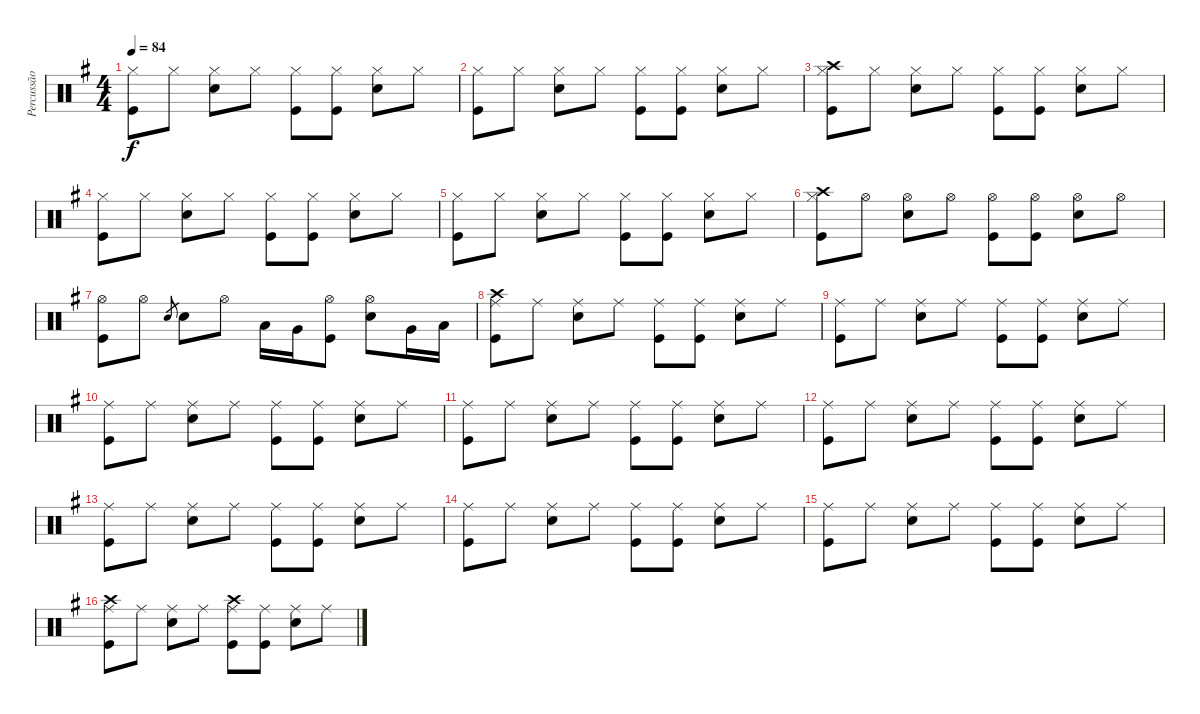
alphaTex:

\track ("Percussão" "Percussão") {instrument percussion}
\staff {score}
\articulation defaults
\ts (4 4)
\tempo 84
\clef neutral
\ks g
("Hi-Hat (closed)" "Kick (hit)").8{dy f} "Hi-Hat (closed)".8 ("Hi-Hat (closed)" "Snare (hit) 2").8 "Hi-Hat (closed)".8 ("Hi-Hat (closed)" "Kick (hit)").8 ("Hi-Hat (closed)" "Kick (hit)").8 ("Hi-Hat (closed)" "Snare (hit) 2").8 "Hi-Hat (closed)".8 |
("Hi-Hat (closed)" "Kick (hit)").8 "Hi-Hat (closed)".8 ("Hi-Hat (closed)" "Snare (hit) 2").8 "Hi-Hat (closed)".8 ("Hi-Hat (closed)" "Kick (hit)").8 ("Hi-Hat (closed)" "Kick (hit)").8 ("Hi-Hat (closed)" "Snare (hit) 2").8 "Hi-Hat (closed)".8 |
("Crash high (hit)" "Hi-Hat (closed)" "Kick (hit)").8 "Hi-Hat (closed)".8 ("Hi-Hat (closed)" "Snare (hit) 2").8 "Hi-Hat (closed)".8 ("Hi-Hat (closed)" "Kick (hit)").8 ("Hi-Hat (closed)" "Kick (hit)").8 ("Hi-Hat (closed)" "Snare (hit) 2").8 "Hi-Hat (closed)".8 |
("Hi-Hat (closed)" "Kick (hit)").8 "Hi-Hat (closed)".8 ("Hi-Hat (closed)" "Snare (hit) 2").8 "Hi-Hat (closed)".8 ("Hi-Hat (closed)" "Kick (hit)").8 ("Hi-Hat (closed)" "Kick (hit)").8 ("Hi-Hat (closed)" "Snare (hit) 2").8 "Hi-Hat (closed)".8 |
("Hi-Hat (closed)" "Kick (hit)").8 "Hi-Hat (closed)".8 ("Hi-Hat (closed)" "Snare (hit) 2").8 "Hi-Hat (closed)".8 ("Hi-Hat (closed)" "Kick (hit)").8 ("Hi-Hat (closed)" "Kick (hit)").8 ("Hi-Hat (closed)" "Snare (hit) 2").8 "Hi-Hat (closed)".8 |
("Crash high (hit)" "Hi-Hat (closed)" "Kick (hit)").8 "Hi-Hat (open)".8 ("Hi-Hat (open)" "Snare (hit) 2").8 "Hi-Hat (open)".8 ("Hi-Hat (open)" "Kick (hit)").8 ("Hi-Hat (open)" "Kick (hit)").8 ("Hi-Hat (open)" "Snare (hit) 2").8 "Hi-Hat (open)".8 |
("Hi-Hat (open)" "Kick (hit)").8 "Hi-Hat (open)".8 "Snare (hit) 2".8{gr} "Snare (hit) 2".8 "Hi-Hat (open)".8 "Low Tom (hit)".16 "Very Low Tom (hit)".16 ("Hi-Hat (open)" "Kick (hit)").8 ("Hi-Hat (open)" "Snare (hit) 2").8 "Very Low Tom (hit)".16 "Low Floor Tom (hit)".16 |
("Crash high (hit)" "Ride (middle)" "Kick (hit)").8 "Ride (middle)".8 ("Ride (middle)" "Snare (hit) 2").8 "Ride (middle)".8 ("Ride (middle)" "Kick (hit)").8 ("Ride (middle)" "Kick (hit)").8 ("Ride (middle)" "Snare (hit) 2").8 "Ride (middle)".8 |
("Ride (middle)" "Kick (hit)").8 "Ride (middle)".8 ("Ride (middle)" "Snare (hit) 2").8 "Ride (middle)".8 ("Ride (middle)" "Kick (hit)").8 ("Ride (middle)" "Kick (hit)").8 ("Ride (middle)" "Snare (hit) 2").8 "Ride (middle)".8 |
("Ride (middle)" "Kick (hit)").8 "Ride (middle)".8 ("Ride (middle)" "Snare (hit) 2").8 "Ride (middle)".8 ("Ride (middle)" "Kick (hit)").8 ("Ride (middle)" "Kick (hit)").8 ("Ride (middle)" "Snare (hit) 2").8 "Ride (middle)".8 |
("Ride (middle)" "Kick (hit)").8 "Ride (middle)".8 ("Ride (middle)" "Snare (hit) 2").8 "Ride (middle)".8 ("Ride (middle)" "Kick (hit)").8 ("Ride (middle)" "Kick (hit)").8 ("Ride (middle)" "Snare (hit) 2").8 "Ride (middle)".8 |
("Ride (middle)" "Kick (hit)").8 "Ride (middle)".8 ("Ride (middle)" "Snare (hit) 2").8 "Ride (middle)".8 ("Ride (middle)" "Kick (hit)").8 ("Ride (middle)" "Kick (hit)").8 ("Ride (middle)" "Snare (hit) 2").8 "Ride (middle)".8 |
("Ride (middle)" "Kick (hit)").8 "Ride (middle)".8 ("Ride (middle)" "Snare (hit) 2").8 "Ride (middle)".8 ("Ride (middle)" "Kick (hit)").8 ("Ride (middle)" "Kick (hit)").8 ("Ride (middle)" "Snare (hit) 2").8 "Ride (middle)".8 |
("Ride (middle)" "Kick (hit)").8 "Ride (middle)".8 ("Ride (middle)" "Snare (hit) 2").8 "Ride (middle)".8 ("Ride (middle)" "Kick (hit)").8 ("Ride (middle)" "Kick (hit)").8 ("Ride (middle)" "Snare (hit) 2").8 "Ride (middle)".8 |
("Ride (middle)" "Kick (hit)").8 "Ride (middle)".8 ("Ride (middle)" "Snare (hit) 2").8 "Ride (middle)".8 ("Ride (middle)" "Kick (hit)").8 ("Ride (middle)" "Kick (hit)").8 ("Ride (middle)" "Snare (hit) 2").8 "Ride (middle)".8 |
("Crash high (hit)" "Ride (middle)" "Kick (hit)").8 "Ride (middle)".8 ("Ride (middle)" "Snare (hit) 2").8 "Ride (middle)".8 ("Crash high (hit)" "Ride (middle)" "Kick (hit)").8 ("Ride (middle)" "Kick (hit)").8 ("Ride (middle)" "Snare (hit) 2").8 "Ride (middle)".8
